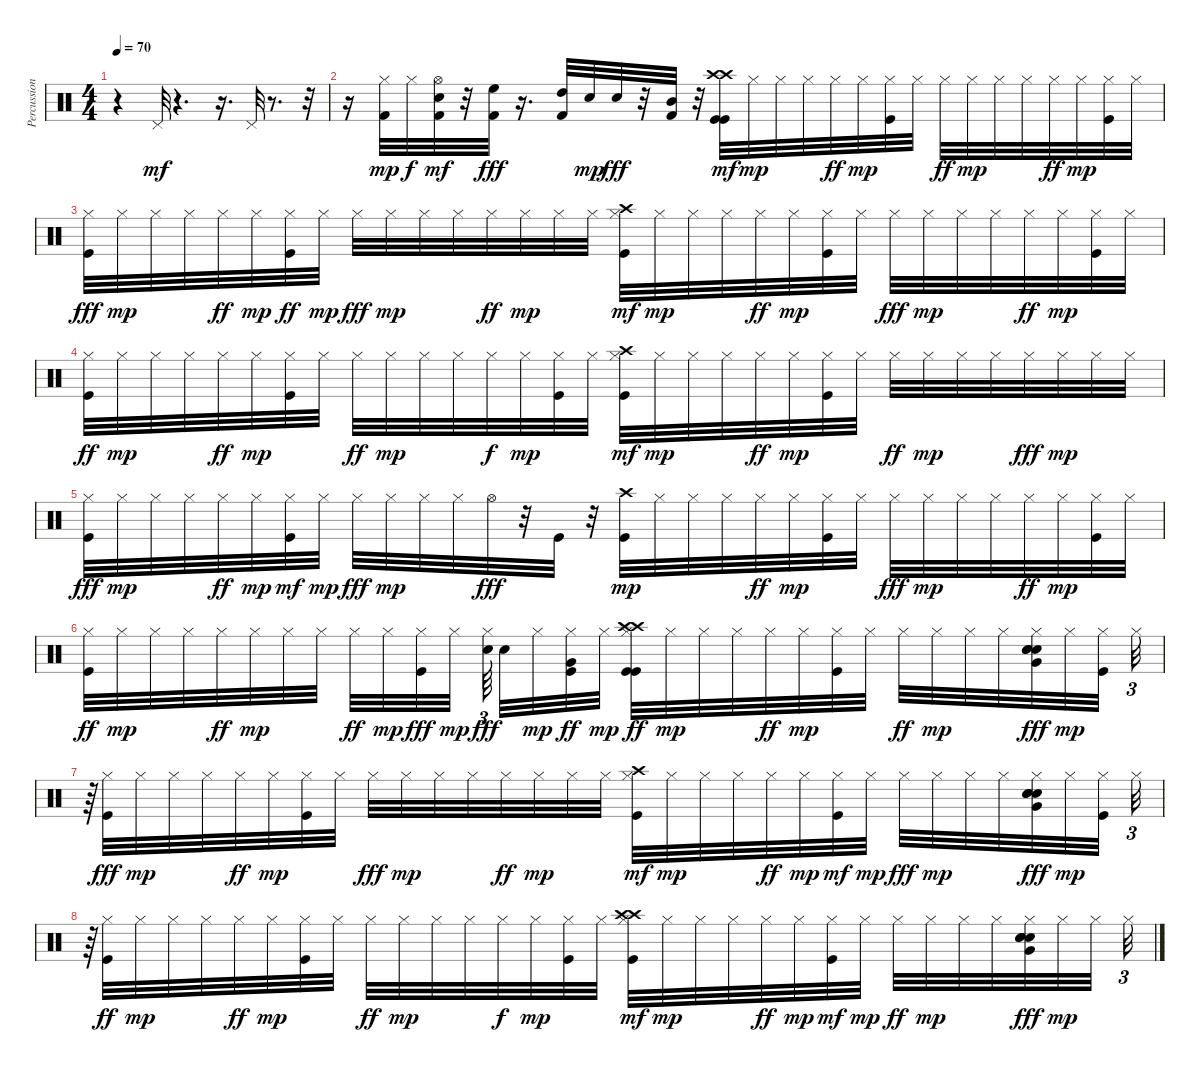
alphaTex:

\track ("Percussioni" "Percussion") {instrument percussion}
\staff {score}
\articulation defaults
\ts (4 4)
\tempo 70
\clef neutral
\ks c
r.4{dy mf} "Pedal Hi-Hat (hit)".32 r.4{d} r.16{d} "Pedal Hi-Hat (hit)".32 r.8{d} r.32 |
r.16 ("Kick (hit) 2" "Hi-Hat (closed)").32{dy mp} "Hi-Hat (closed)".32{dy f} ("Kick (hit) 2" "Electric Snare (hit)" "Hi-Hat (open)").32{dy mf} r.32 ("Kick (hit) 2" "High Floor Tom (hit)").32{dy fff} r.16{d} ("Kick (hit) 2" "High Tom (hit)").32 "Electric Snare (hit)".32{dy mp} "Electric Snare (hit)".32{dy fff} r.32 ("Kick (hit) 2" "Mid Tom (hit)").32 r.32 ("Kick (hit)" "Crash high (hit)" "Kick (hit)" "Crash high (hit)").32{dy mf} "Hi-Hat (closed)".32{dy mp} "Hi-Hat (closed)".32 "Hi-Hat (closed)".32 "Hi-Hat (closed)".32{dy ff} "Hi-Hat (closed)".32{dy mp} ("Hi-Hat (closed)" "Kick (hit)").32 "Hi-Hat (closed)".32 "Hi-Hat (closed)".32{dy ff} "Hi-Hat (closed)".32{dy mp} "Hi-Hat (closed)".32 "Hi-Hat (closed)".32 "Hi-Hat (closed)".32{dy ff} "Hi-Hat (closed)".32{dy mp} ("Kick (hit)" "Hi-Hat (closed)").32 "Hi-Hat (closed)".32 |
("Kick (hit)" "Hi-Hat (closed)").32{dy fff} "Hi-Hat (closed)".32{dy mp} "Hi-Hat (closed)".32 "Hi-Hat (closed)".32 "Hi-Hat (closed)".32{dy ff} "Hi-Hat (closed)".32{dy mp} ("Hi-Hat (closed)" "Kick (hit)").32{dy ff} "Hi-Hat (closed)".32{dy mp} "Hi-Hat (closed)".32{dy fff} "Hi-Hat (closed)".32{dy mp} "Hi-Hat (closed)".32 "Hi-Hat (closed)".32 "Hi-Hat (closed)".32{dy ff} "Hi-Hat (closed)".32{dy mp} "Hi-Hat (closed)".32 "Hi-Hat (closed)".32 ("Kick (hit)" "Hi-Hat (closed)" "Crash high (hit)").32{dy mf} "Hi-Hat (closed)".32{dy mp} "Hi-Hat (closed)".32 "Hi-Hat (closed)".32 "Hi-Hat (closed)".32{dy ff} "Hi-Hat (closed)".32{dy mp} ("Hi-Hat (closed)" "Kick (hit)").32 "Hi-Hat (closed)".32 "Hi-Hat (closed)".32{dy fff} "Hi-Hat (closed)".32{dy mp} "Hi-Hat (closed)".32 "Hi-Hat (closed)".32 "Hi-Hat (closed)".32{dy ff} "Hi-Hat (closed)".32{dy mp} ("Kick (hit)" "Hi-Hat (closed)").32 "Hi-Hat (closed)".32 |
("Kick (hit)" "Hi-Hat (closed)").32{dy ff} "Hi-Hat (closed)".32{dy mp} "Hi-Hat (closed)".32 "Hi-Hat (closed)".32 "Hi-Hat (closed)".32{dy ff} "Hi-Hat (closed)".32{dy mp} ("Hi-Hat (closed)" "Kick (hit)").32 "Hi-Hat (closed)".32 "Hi-Hat (closed)".32{dy ff} "Hi-Hat (closed)".32{dy mp} "Hi-Hat (closed)".32 "Hi-Hat (closed)".32 "Hi-Hat (closed)".32{dy f} "Hi-Hat (closed)".32{dy mp} ("Kick (hit)" "Hi-Hat (closed)").32 "Hi-Hat (closed)".32 ("Kick (hit)" "Hi-Hat (closed)" "Crash high (hit)").32{dy mf} "Hi-Hat (closed)".32{dy mp} "Hi-Hat (closed)".32 "Hi-Hat (closed)".32 "Hi-Hat (closed)".32{dy ff} "Hi-Hat (closed)".32{dy mp} ("Hi-Hat (closed)" "Kick (hit)").32 "Hi-Hat (closed)".32 "Hi-Hat (closed)".32{dy ff} "Hi-Hat (closed)".32{dy mp} "Hi-Hat (closed)".32 "Hi-Hat (closed)".32 "Hi-Hat (closed)".32{dy fff} "Hi-Hat (closed)".32{dy mp} "Hi-Hat (closed)".32 "Hi-Hat (closed)".32 |
("Kick (hit)" "Hi-Hat (closed)").32{dy fff} "Hi-Hat (closed)".32{dy mp} "Hi-Hat (closed)".32 "Hi-Hat (closed)".32 "Hi-Hat (closed)".32{dy ff} "Hi-Hat (closed)".32{dy mp} ("Hi-Hat (closed)" "Kick (hit)").32{dy mf} "Hi-Hat (closed)".32{dy mp} "Hi-Hat (closed)".32{dy fff} "Hi-Hat (closed)".32{dy mp} "Hi-Hat (closed)".32 "Hi-Hat (closed)".32 "Hi-Hat (open)".32{dy fff} r.32 "Kick (hit)".32 r.32 ("Kick (hit)" "Crash high (hit)").32{dy mp} "Hi-Hat (closed)".32 "Hi-Hat (closed)".32 "Hi-Hat (closed)".32 "Hi-Hat (closed)".32{dy ff} "Hi-Hat (closed)".32{dy mp} ("Hi-Hat (closed)" "Kick (hit)").32 "Hi-Hat (closed)".32 "Hi-Hat (closed)".32{dy fff} "Hi-Hat (closed)".32{dy mp} "Hi-Hat (closed)".32 "Hi-Hat (closed)".32 "Hi-Hat (closed)".32{dy ff} "Hi-Hat (closed)".32{dy mp} ("Kick (hit)" "Hi-Hat (closed)").32 "Hi-Hat (closed)".32 |
("Kick (hit)" "Hi-Hat (closed)").32{dy ff} "Hi-Hat (closed)".32{dy mp} "Hi-Hat (closed)".32 "Hi-Hat (closed)".32 "Hi-Hat (closed)".32{dy ff} "Hi-Hat (closed)".32{dy mp} "Hi-Hat (closed)".32 "Hi-Hat (closed)".32 "Hi-Hat (closed)".32{dy ff} "Hi-Hat (closed)".32{dy mp} ("Hi-Hat (closed)" "Kick (hit)").32{dy fff} "Hi-Hat (closed)".32{dy mp} ("Hi-Hat (closed)" "Snare (hit) 2").64{tu (3 2) dy fff} "Electric Snare (hit)".32 "Hi-Hat (closed)".32{dy mp} ("Kick (hit)" "Hi-Hat (closed)" "Very Low Tom (hit)").32{dy ff} "Hi-Hat (closed)".32{dy mp} ("Kick (hit)" "Hi-Hat (closed)" "Crash high (hit)" "Kick (hit)" "Crash high (hit)").32{dy ff} "Hi-Hat (closed)".32{dy mp} "Hi-Hat (closed)".32 "Hi-Hat (closed)".32 "Hi-Hat (closed)".32{dy ff} "Hi-Hat (closed)".32{dy mp} ("Hi-Hat (closed)" "Kick (hit)").32 "Hi-Hat (closed)".32 "Hi-Hat (closed)".32{dy ff} "Hi-Hat (closed)".32{dy mp} "Hi-Hat (closed)".32 "Hi-Hat (closed)".32 ("Electric Snare (hit)" "Electric Snare (hit)" "Hi-Hat (closed)" "Very Low Tom (hit)" "Snare (hit) 2").32{dy fff} "Hi-Hat (closed)".32{dy mp} ("Kick (hit)" "Hi-Hat (closed)").32 "Hi-Hat (closed)".32{tu (3 2)} |
r.64{tu (3 2)} ("Kick (hit)" "Hi-Hat (closed)").32{dy fff} "Hi-Hat (closed)".32{dy mp} "Hi-Hat (closed)".32 "Hi-Hat (closed)".32 "Hi-Hat (closed)".32{dy ff} "Hi-Hat (closed)".32{dy mp} ("Hi-Hat (closed)" "Kick (hit)").32 "Hi-Hat (closed)".32 "Hi-Hat (closed)".32{dy fff} "Hi-Hat (closed)".32{dy mp} "Hi-Hat (closed)".32 "Hi-Hat (closed)".32 "Hi-Hat (closed)".32{dy ff} "Hi-Hat (closed)".32{dy mp} "Hi-Hat (closed)".32 "Hi-Hat (closed)".32 ("Kick (hit)" "Hi-Hat (closed)" "Crash high (hit)").32{dy mf} "Hi-Hat (closed)".32{dy mp} "Hi-Hat (closed)".32 "Hi-Hat (closed)".32 "Hi-Hat (closed)".32{dy ff} "Hi-Hat (closed)".32{dy mp} ("Hi-Hat (closed)" "Kick (hit)").32{dy mf} "Hi-Hat (closed)".32{dy mp} "Hi-Hat (closed)".32{dy fff} "Hi-Hat (closed)".32{dy mp} "Hi-Hat (closed)".32 "Hi-Hat (closed)".32 ("Electric Snare (hit)" "Electric Snare (hit)" "Hi-Hat (closed)" "Very Low Tom (hit)" "Snare (hit) 2").32{dy fff} "Hi-Hat (closed)".32{dy mp} ("Kick (hit)" "Hi-Hat (closed)").32 "Hi-Hat (closed)".32{tu (3 2)} |
r.64{tu (3 2)} ("Kick (hit)" "Hi-Hat (closed)").32{dy ff} "Hi-Hat (closed)".32{dy mp} "Hi-Hat (closed)".32 "Hi-Hat (closed)".32 "Hi-Hat (closed)".32{dy ff} "Hi-Hat (closed)".32{dy mp} ("Hi-Hat (closed)" "Kick (hit)").32 "Hi-Hat (closed)".32 "Hi-Hat (closed)".32{dy ff} "Hi-Hat (closed)".32{dy mp} "Hi-Hat (closed)".32 "Hi-Hat (closed)".32 "Hi-Hat (closed)".32{dy f} "Hi-Hat (closed)".32{dy mp} ("Kick (hit)" "Hi-Hat (closed)").32 "Hi-Hat (closed)".32 ("Kick (hit)" "Hi-Hat (closed)" "Crash high (hit)" "Crash high (hit)").32{dy mf} "Hi-Hat (closed)".32{dy mp} "Hi-Hat (closed)".32 "Hi-Hat (closed)".32 "Hi-Hat (closed)".32{dy ff} "Hi-Hat (closed)".32{dy mp} ("Hi-Hat (closed)" "Kick (hit)").32{dy mf} "Hi-Hat (closed)".32{dy mp} "Hi-Hat (closed)".32{dy ff} "Hi-Hat (closed)".32{dy mp} "Hi-Hat (closed)".32 "Hi-Hat (closed)".32 ("Electric Snare (hit)" "Electric Snare (hit)" "Hi-Hat (closed)" "Very Low Tom (hit)" "Snare (hit) 2").32{dy fff} "Hi-Hat (closed)".32{dy mp} "Hi-Hat (closed)".32 "Hi-Hat (closed)".32{tu (3 2)}
